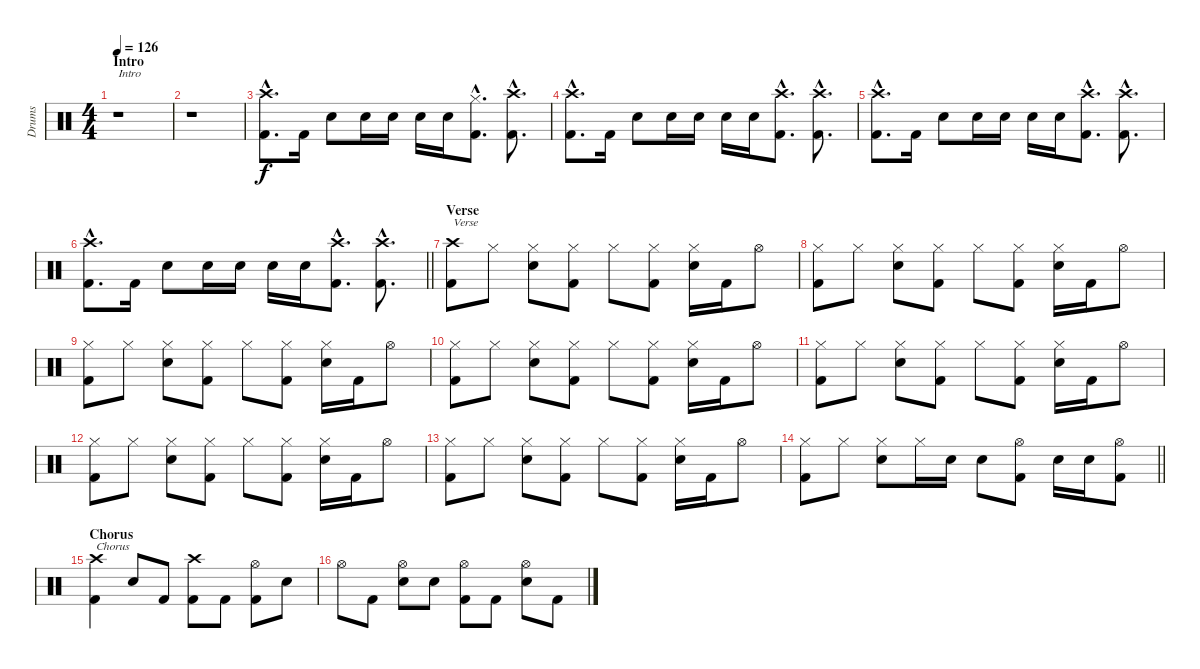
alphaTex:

\track ("Drums" "Drums") {instrument percussion}
\staff {score}
\articulation defaults
\ts (4 4)
\section ("" "Intro")
\tempo 126
\clef neutral
\ks c
r.1{txt "Intro" dy f} |
r.1 |
("Crash high (hit)"{hac} "Kick (hit) 2"{hac}).8{d} "Kick (hit) 2".16 "Electric Snare (hit)".8 "Electric Snare (hit)".16 "Electric Snare (hit)".16 "Electric Snare (hit)".16 "Electric Snare (hit)".16 ("Hi-Hat (closed)"{hac} "Kick (hit) 2"{hac}).8{d} ("Crash high (hit)"{hac} "Kick (hit) 2"{hac}).8{d} |
("Crash high (hit)"{hac} "Kick (hit) 2"{hac}).8{d} "Kick (hit) 2".16 "Electric Snare (hit)".8 "Electric Snare (hit)".16 "Electric Snare (hit)".16 "Electric Snare (hit)".16 "Electric Snare (hit)".16 ("Crash high (hit)"{hac} "Kick (hit) 2"{hac}).8{d} ("Crash high (hit)"{hac} "Kick (hit) 2"{hac}).8{d} |
("Crash high (hit)"{hac} "Kick (hit) 2"{hac}).8{d} "Kick (hit) 2".16 "Electric Snare (hit)".8 "Electric Snare (hit)".16 "Electric Snare (hit)".16 "Electric Snare (hit)".16 "Electric Snare (hit)".16 ("Crash high (hit)"{hac} "Kick (hit) 2"{hac}).8{d} ("Crash high (hit)"{hac} "Kick (hit) 2"{hac}).8{d} |
\barLineRight lightlight
("Crash high (hit)"{hac} "Kick (hit) 2"{hac}).8{d} "Kick (hit) 2".16 "Electric Snare (hit)".8 "Electric Snare (hit)".16 "Electric Snare (hit)".16 "Electric Snare (hit)".16 "Electric Snare (hit)".16 ("Crash high (hit)"{hac} "Kick (hit) 2"{hac}).8{d} ("Crash high (hit)"{hac} "Kick (hit) 2"{hac}).8{d} |
\section ("" "Verse")
("Crash high (hit)" "Kick (hit) 2").8{txt "Verse"} "Hi-Hat (closed)".8 ("Hi-Hat (closed)" "Electric Snare (hit)").8 ("Hi-Hat (closed)" "Kick (hit) 2").8 "Hi-Hat (closed)".8 ("Hi-Hat (closed)" "Kick (hit) 2").8 ("Hi-Hat (closed)" "Electric Snare (hit)").16 "Kick (hit) 2".16 "Hi-Hat (open)".8 |
("Hi-Hat (closed)" "Kick (hit) 2").8 "Hi-Hat (closed)".8 ("Hi-Hat (closed)" "Electric Snare (hit)").8 ("Hi-Hat (closed)" "Kick (hit) 2").8 "Hi-Hat (closed)".8 ("Hi-Hat (closed)" "Kick (hit) 2").8 ("Hi-Hat (closed)" "Electric Snare (hit)").16 "Kick (hit) 2".16 "Hi-Hat (open)".8 |
("Hi-Hat (closed)" "Kick (hit) 2").8 "Hi-Hat (closed)".8 ("Hi-Hat (closed)" "Electric Snare (hit)").8 ("Hi-Hat (closed)" "Kick (hit) 2").8 "Hi-Hat (closed)".8 ("Hi-Hat (closed)" "Kick (hit) 2").8 ("Hi-Hat (closed)" "Electric Snare (hit)").16 "Kick (hit) 2".16 "Hi-Hat (open)".8 |
("Hi-Hat (closed)" "Kick (hit) 2").8 "Hi-Hat (closed)".8 ("Hi-Hat (closed)" "Electric Snare (hit)").8 ("Hi-Hat (closed)" "Kick (hit) 2").8 "Hi-Hat (closed)".8 ("Hi-Hat (closed)" "Kick (hit) 2").8 ("Hi-Hat (closed)" "Electric Snare (hit)").16 "Kick (hit) 2".16 "Hi-Hat (open)".8 |
("Hi-Hat (closed)" "Kick (hit) 2").8 "Hi-Hat (closed)".8 ("Hi-Hat (closed)" "Electric Snare (hit)").8 ("Hi-Hat (closed)" "Kick (hit) 2").8 "Hi-Hat (closed)".8 ("Hi-Hat (closed)" "Kick (hit) 2").8 ("Hi-Hat (closed)" "Electric Snare (hit)").16 "Kick (hit) 2".16 "Hi-Hat (open)".8 |
("Hi-Hat (closed)" "Kick (hit) 2").8 "Hi-Hat (closed)".8 ("Hi-Hat (closed)" "Electric Snare (hit)").8 ("Hi-Hat (closed)" "Kick (hit) 2").8 "Hi-Hat (closed)".8 ("Hi-Hat (closed)" "Kick (hit) 2").8 ("Hi-Hat (closed)" "Electric Snare (hit)").16 "Kick (hit) 2".16 "Hi-Hat (open)".8 |
("Hi-Hat (closed)" "Kick (hit) 2").8 "Hi-Hat (closed)".8 ("Hi-Hat (closed)" "Electric Snare (hit)").8 ("Hi-Hat (closed)" "Kick (hit) 2").8 "Hi-Hat (closed)".8 ("Hi-Hat (closed)" "Kick (hit) 2").8 ("Hi-Hat (closed)" "Electric Snare (hit)").16 "Kick (hit) 2".16 "Hi-Hat (open)".8 |
\barLineRight lightlight
("Hi-Hat (closed)" "Kick (hit) 2").8 "Hi-Hat (closed)".8 ("Hi-Hat (closed)" "Electric Snare (hit)").8 "Hi-Hat (closed)".16 "Electric Snare (hit)".16 "Electric Snare (hit)".8 ("Hi-Hat (open)" "Kick (hit) 2").8 "Electric Snare (hit)".16 "Electric Snare (hit)".16 ("Hi-Hat (open)" "Kick (hit) 2").8 |
\section ("" "Chorus")
("Crash high (hit)" "Kick (hit) 2").4{txt "Chorus"} "Electric Snare (hit)".8 "Kick (hit) 2".8 ("Crash high (hit)" "Kick (hit) 2").8 "Kick (hit) 2".8 ("Hi-Hat (open)" "Kick (hit) 2").8 "Electric Snare (hit)".8 |
"Hi-Hat (open)".8 "Kick (hit) 2".8 ("Hi-Hat (open)" "Electric Snare (hit)").8 "Electric Snare (hit)".8 ("Hi-Hat (open)" "Kick (hit) 2").8 "Kick (hit) 2".8 ("Hi-Hat (open)" "Electric Snare (hit)").8 "Kick (hit) 2".8
